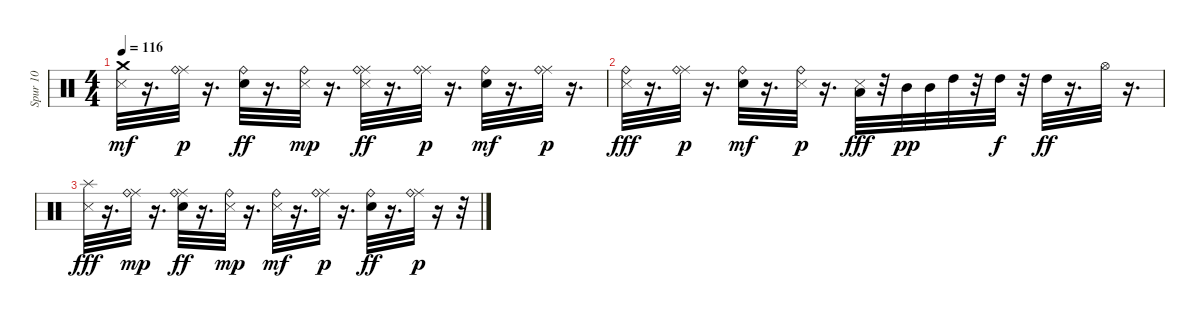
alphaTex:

\track ("Spur 10" "Spur 10") {instrument percussion}
\staff {score}
\articulation defaults
\ts (4 4)
\tempo 116
\clef neutral
\ks c
("Metronome (hit)" "Crash medium (hit)").32{dy mf} r.16{d} ("Ride (middle)" "Ride (bell)").32{dy p} r.16{d} ("Ride (bell)" "Metronome (bell)").32{dy ff} r.16{d} ("Metronome (hit)" "Ride (bell)").32{dy mp} r.16{d} ("Metronome (hit)" "Ride (middle)" "Ride (bell)").32{dy ff} r.16{d} ("Ride (middle)" "Ride (bell)").32{dy p} r.16{d} ("Metronome (bell)" "Ride (bell)").32{dy mf} r.16{d} ("Ride (middle)" "Ride (bell)").32{dy p} r.16{d} |
("Metronome (hit)" "Ride (bell)").32{dy fff} r.16{d} ("Ride (middle)" "Ride (bell)").32{dy p} r.16{d} ("Metronome (bell)" "Ride (bell)").32{dy mf} r.16{d} ("Metronome (hit)" "Ride (bell)").32{dy p} r.16{d} ("Metronome (hit)" "Low Tom (hit)").32{dy fff} r.32 "Mid Tom (hit)".32{dy pp} "Mid Tom (hit)".32 "High Tom (hit)".32 r.32 "High Tom (hit)".32{dy f} r.32 "High Tom (hit)".32{dy ff} r.16{d} "Hi-Hat (open)".32 r.16{d} |
("Metronome (hit)" "Splash (hit)").32{dy fff} r.16{d} ("Ride (middle)" "Ride (bell)").32{dy mp} r.16{d} ("Ride (middle)" "Ride (bell)" "Metronome (bell)").32{dy ff} r.16{d} ("Metronome (hit)" "Ride (bell)").32{dy mp} r.16{d} ("Metronome (hit)" "Ride (bell)").32{dy mf} r.16{d} ("Ride (middle)" "Ride (bell)").32{dy p} r.16{d} ("Metronome (bell)" "Ride (bell)").32{dy ff} r.16{d} ("Ride (middle)" "Ride (bell)").32{dy p} r.16 r.32
